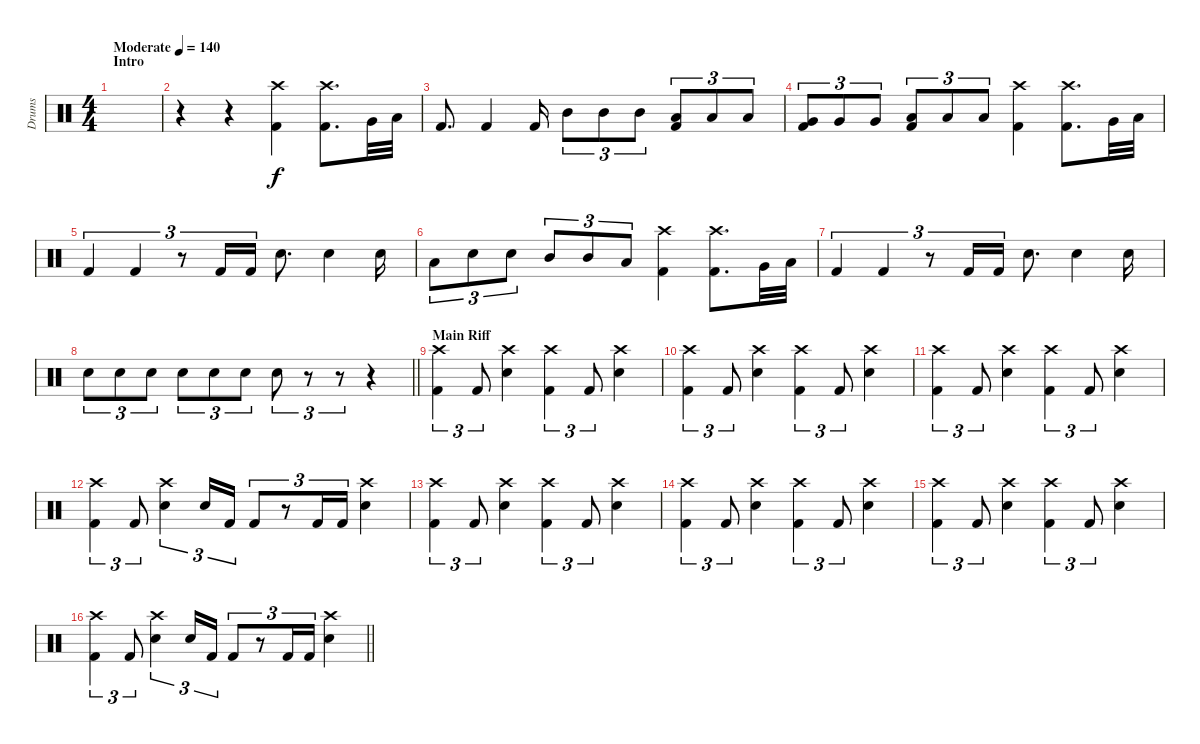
\track ("Drums" "Drums") {instrument percussion}
\staff {score}
\articulation defaults
\ts (4 4)
\section ("" "Intro")
\tempo (140 "Moderate")
\clef neutral
\ks c
|
r.4 r.4 ("Crash high (hit)" "Kick (hit) 2").4 ("Crash high (hit)" "Kick (hit) 2").8{d} "Very Low Tom (hit)".32 "Low Floor Tom (hit)".32 |
"Kick (hit) 2".8{d} "Kick (hit) 2".4 "Kick (hit) 2".16 "Mid Tom (hit)".8{tu (3 2)} "Mid Tom (hit)".8{tu (3 2)} "Mid Tom (hit)".8{tu (3 2)} ("Low Tom (hit)" "Kick (hit) 2").8{tu (3 2)} "Low Tom (hit)".8{tu (3 2)} "Low Tom (hit)".8{tu (3 2)} |
("Very Low Tom (hit)" "Kick (hit) 2").8{tu (3 2)} "Very Low Tom (hit)".8{tu (3 2)} "Very Low Tom (hit)".8{tu (3 2)} ("Low Floor Tom (hit)" "Kick (hit) 2").8{tu (3 2)} "Low Floor Tom (hit)".8{tu (3 2)} "Low Floor Tom (hit)".8{tu (3 2)} ("Crash high (hit)" "Kick (hit) 2").4 ("Crash high (hit)" "Kick (hit) 2").8{d} "Very Low Tom (hit)".32 "Low Floor Tom (hit)".32 |
"Kick (hit) 2".4{tu (3 2)} "Kick (hit) 2".4{tu (3 2)} r.8{tu (3 2)} "Kick (hit) 2".16{tu (3 2)} "Kick (hit) 2".16{tu (3 2)} "Snare (hit) 2".8{d} "Snare (hit) 2".4 "Snare (hit) 2".16 |
"Low Floor Tom (hit)".8{tu (3 2)} "Snare (hit) 2".8{tu (3 2)} "Snare (hit) 2".8{tu (3 2)} "Mid Tom (hit)".8{tu (3 2)} "Mid Tom (hit)".8{tu (3 2)} "Low Tom (hit)".8{tu (3 2)} ("Crash high (hit)" "Kick (hit) 2").4 ("Crash high (hit)" "Kick (hit) 2").8{d} "Very Low Tom (hit)".32 "Low Floor Tom (hit)".32 |
"Kick (hit) 2".4{tu (3 2)} "Kick (hit) 2".4{tu (3 2)} r.8{tu (3 2)} "Kick (hit) 2".16{tu (3 2)} "Kick (hit) 2".16{tu (3 2)} "Snare (hit) 2".8{d} "Snare (hit) 2".4 "Snare (hit) 2".16 |
\barLineRight lightlight "Snare (hit) 2".8{tu (3 2)} "Snare (hit) 2".8{tu (3 2)} "Snare (hit) 2".8{tu (3 2)} "Snare (hit) 2".8{tu (3 2)} "Snare (hit) 2".8{tu (3 2)} "Snare (hit) 2".8{tu (3 2)} "Snare (hit) 2".8{tu (3 2)}
r.8{tu (3 2)} r.8{tu (3 2)} r.4 |
\section ("" "Main Riff")
("Crash high (hit)" "Kick (hit) 2").4{tu (3 2)} "Kick (hit) 2".8{tu (3 2)} ("Crash high (hit)" "Snare (hit) 2").4 ("Crash high (hit)" "Kick (hit) 2").4{tu (3 2)} "Kick (hit) 2".8{tu (3 2)} ("Crash high (hit)" "Snare (hit) 2").4 |
("Crash high (hit)" "Kick (hit) 2").4{tu (3 2)} "Kick (hit) 2".8{tu (3 2)} ("Crash high (hit)" "Snare (hit) 2").4 ("Crash high (hit)" "Kick (hit) 2").4{tu (3 2)} "Kick (hit) 2".8{tu (3 2)} ("Crash high (hit)" "Snare (hit) 2").4 |
("Crash high (hit)" "Kick (hit) 2").4{tu (3 2)} "Kick (hit) 2".8{tu (3 2)} ("Crash high (hit)" "Snare (hit) 2").4 ("Crash high (hit)" "Kick (hit) 2").4{tu (3 2)} "Kick (hit) 2".8{tu (3 2)} ("Crash high (hit)" "Snare (hit) 2").4 |
("Crash high (hit)" "Kick (hit) 2").4{tu (3 2)} "Kick (hit) 2".8{tu (3 2)} ("Crash high (hit)" "Snare (hit) 2").4{tu (3 2)} "Snare (hit) 2".16{tu (3 2)} "Kick (hit) 2".16{tu (3 2)} "Kick (hit) 2".8{tu (3 2)} r.8{tu (3 2)} "Kick (hit) 2".16{tu (3 2)} "Kick (hit) 2".16{tu (3 2)} ("Crash high (hit)" "Snare (hit) 2").4 |
("Crash high (hit)" "Kick (hit) 2").4{tu (3 2)} "Kick (hit) 2".8{tu (3 2)} ("Crash high (hit)" "Snare (hit) 2").4 ("Crash high (hit)" "Kick (hit) 2").4{tu (3 2)} "Kick (hit) 2".8{tu (3 2)} ("Crash high (hit)" "Snare (hit) 2").4 |
("Crash high (hit)" "Kick (hit) 2").4{tu (3 2)} "Kick (hit) 2".8{tu (3 2)} ("Crash high (hit)" "Snare (hit) 2").4 ("Crash high (hit)" "Kick (hit) 2").4{tu (3 2)} "Kick (hit) 2".8{tu (3 2)} ("Crash high (hit)" "Snare (hit) 2").4 |
("Crash high (hit)" "Kick (hit) 2").4{tu (3 2)} "Kick (hit) 2".8{tu (3 2)} ("Crash high (hit)" "Snare (hit) 2").4 ("Crash high (hit)" "Kick (hit) 2").4{tu (3 2)} "Kick (hit) 2".8{tu (3 2)} ("Crash high (hit)" "Snare (hit) 2").4 |
\barLineRight lightlight
("Crash high (hit)" "Kick (hit) 2").4{tu (3 2)} "Kick (hit) 2".8{tu (3 2)} ("Crash high (hit)" "Snare (hit) 2").4{tu (3 2)} "Snare (hit) 2".16{tu (3 2)} "Kick (hit) 2".16{tu (3 2)} "Kick (hit) 2".8{tu (3 2)} r.8{tu (3 2)} "Kick (hit) 2".16{tu (3 2)} "Kick (hit) 2".16{tu (3 2)} ("Crash high (hit)" "Snare (hit) 2").4
